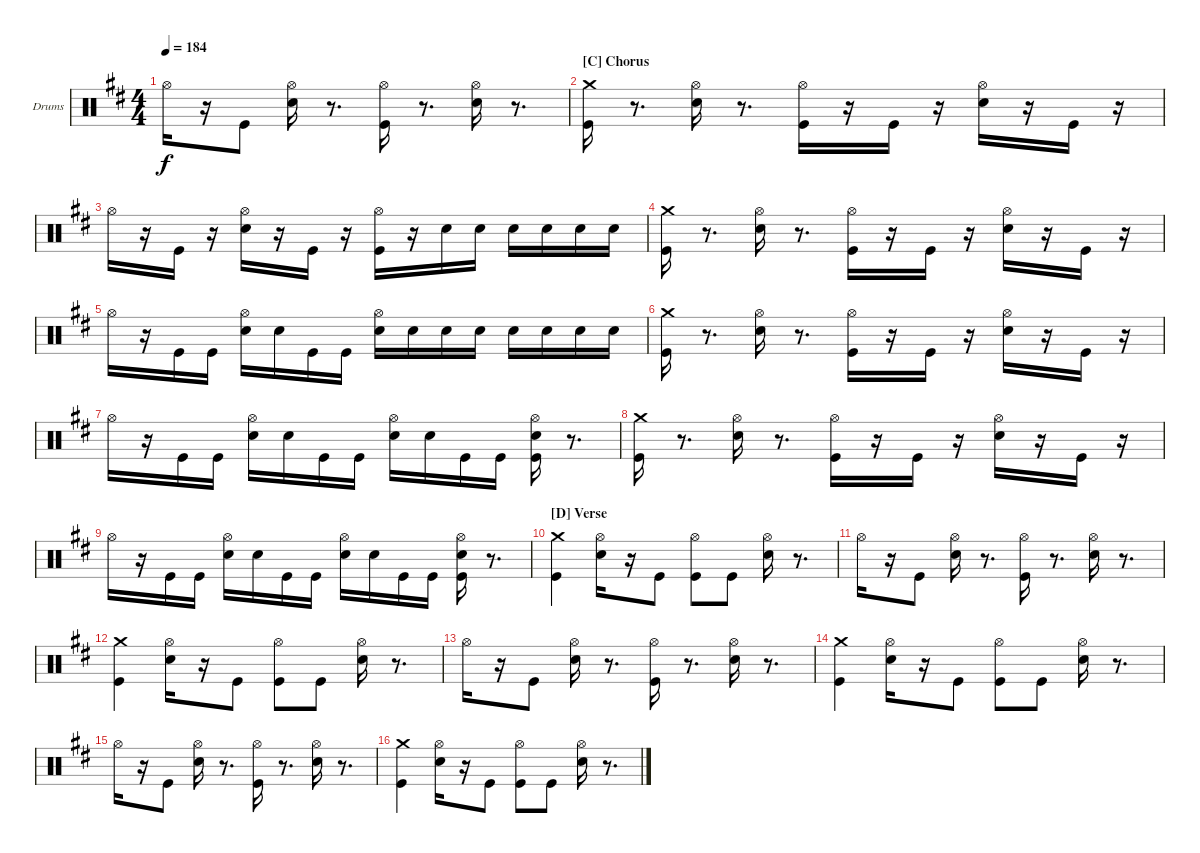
\defaultSystemsLayout 4
\bracketExtendMode groupsimilarinstruments
\firstSystemTrackNameOrientation horizontal
\otherSystemsTrackNameOrientation horizontal
\track ("Drumkit" "Drums") {instrument percussion}
\staff {score}
\articulation defaults
\ts (4 4)
\tempo 184
\clef neutral
\ks d "Hi-Hat (open)".16{dy f}
r.16 "Kick (hit)".8 ("Hi-Hat (open)" "Snare (hit) 2").16 r.8{d} ("Hi-Hat (open)" "Kick (hit)").16 r.8{d} ("Hi-Hat (open)" "Snare (hit) 2").16 r.8{d} |
\section ("C" "Chorus")
("Crash medium (hit)" "Kick (hit)").16 r.8{d} ("Hi-Hat (open)" "Snare (hit) 2").16 r.8{d} ("Hi-Hat (open)" "Kick (hit)").16 r.16 "Kick (hit)".16 r.16 ("Snare (hit) 2" "Hi-Hat (open)").16 r.16 "Kick (hit)".16 r.16 |
"Hi-Hat (open)".16 r.16 "Kick (hit)".16 r.16 ("Hi-Hat (open)" "Snare (hit) 2").16 r.16 "Kick (hit)".16 r.16 ("Kick (hit)" "Hi-Hat (open)").16 r.16 "Snare (hit) 2".16 "Snare (hit) 2".16 "Snare (hit) 2".16 "Snare (hit) 2".16 "Snare (hit) 2".16 "Snare (hit) 2".16 |
("Crash medium (hit)" "Kick (hit)").16 r.8{d} ("Hi-Hat (open)" "Snare (hit) 2").16 r.8{d} ("Hi-Hat (open)" "Kick (hit)").16 r.16 "Kick (hit)".16 r.16 ("Snare (hit) 2" "Hi-Hat (open)").16 r.16 "Kick (hit)".16 r.16 |
"Hi-Hat (open)".16 r.16 "Kick (hit)".16 "Kick (hit)".16 ("Hi-Hat (open)" "Snare (hit) 2").16 "Snare (hit) 2".16 "Kick (hit)".16 "Kick (hit)".16 ("Hi-Hat (open)" "Snare (hit) 2").16 "Snare (hit) 2".16 "Snare (hit) 2".16 "Snare (hit) 2".16 "Snare (hit) 2".16 "Snare (hit) 2".16 "Snare (hit) 2".16 "Snare (hit) 2".16 |
("Crash medium (hit)" "Kick (hit)").16 r.8{d} ("Hi-Hat (open)" "Snare (hit) 2").16 r.8{d} ("Hi-Hat (open)" "Kick (hit)").16 r.16 "Kick (hit)".16 r.16 ("Snare (hit) 2" "Hi-Hat (open)").16 r.16 "Kick (hit)".16 r.16 |
"Hi-Hat (open)".16 r.16 "Kick (hit)".16 "Kick (hit)".16 ("Hi-Hat (open)" "Snare (hit) 2").16 "Snare (hit) 2".16 "Kick (hit)".16 "Kick (hit)".16 ("Hi-Hat (open)" "Snare (hit) 2").16 "Snare (hit) 2".16 "Kick (hit)".16 "Kick (hit)".16 ("Hi-Hat (open)" "Snare (hit) 2" "Kick (hit)").16 r.8{d} |
("Crash medium (hit)" "Kick (hit)").16 r.8{d} ("Hi-Hat (open)" "Snare (hit) 2").16 r.8{d} ("Hi-Hat (open)" "Kick (hit)").16 r.16 "Kick (hit)".16 r.16 ("Snare (hit) 2" "Hi-Hat (open)").16 r.16 "Kick (hit)".16 r.16 |
"Hi-Hat (open)".16 r.16 "Kick (hit)".16 "Kick (hit)".16 ("Hi-Hat (open)" "Snare (hit) 2").16 "Snare (hit) 2".16 "Kick (hit)".16 "Kick (hit)".16 ("Hi-Hat (open)" "Snare (hit) 2").16 "Snare (hit) 2".16 "Kick (hit)".16 "Kick (hit)".16 ("Hi-Hat (open)" "Snare (hit) 2" "Kick (hit)").16 r.8{d} |
\section ("D" "Verse")
("Crash medium (hit)" "Kick (hit)").4 ("Hi-Hat (open)" "Snare (hit) 2").16 r.16 "Kick (hit)".8 ("Hi-Hat (open)" "Kick (hit)").8 "Kick (hit)".8 ("Hi-Hat (open)" "Snare (hit) 2").16 r.8{d} |
"Hi-Hat (open)".16 r.16 "Kick (hit)".8 ("Hi-Hat (open)" "Snare (hit) 2").16 r.8{d} ("Hi-Hat (open)" "Kick (hit)").16 r.8{d} ("Hi-Hat (open)" "Snare (hit) 2").16 r.8{d} |
("Crash medium (hit)" "Kick (hit)").4 ("Hi-Hat (open)" "Snare (hit) 2").16 r.16 "Kick (hit)".8 ("Hi-Hat (open)" "Kick (hit)").8 "Kick (hit)".8 ("Hi-Hat (open)" "Snare (hit) 2").16 r.8{d} |
"Hi-Hat (open)".16 r.16 "Kick (hit)".8 ("Hi-Hat (open)" "Snare (hit) 2").16 r.8{d} ("Hi-Hat (open)" "Kick (hit)").16 r.8{d} ("Hi-Hat (open)" "Snare (hit) 2").16 r.8{d} |
("Crash medium (hit)" "Kick (hit)").4 ("Hi-Hat (open)" "Snare (hit) 2").16 r.16 "Kick (hit)".8 ("Hi-Hat (open)" "Kick (hit)").8 "Kick (hit)".8 ("Hi-Hat (open)" "Snare (hit) 2").16 r.8{d} |
"Hi-Hat (open)".16 r.16 "Kick (hit)".8 ("Hi-Hat (open)" "Snare (hit) 2").16 r.8{d} ("Hi-Hat (open)" "Kick (hit)").16 r.8{d} ("Hi-Hat (open)" "Snare (hit) 2").16 r.8{d} |
("Crash medium (hit)" "Kick (hit)").4 ("Hi-Hat (open)" "Snare (hit) 2").16 r.16 "Kick (hit)".8 ("Hi-Hat (open)" "Kick (hit)").8 "Kick (hit)".8 ("Hi-Hat (open)" "Snare (hit) 2").16 r.8{d}
